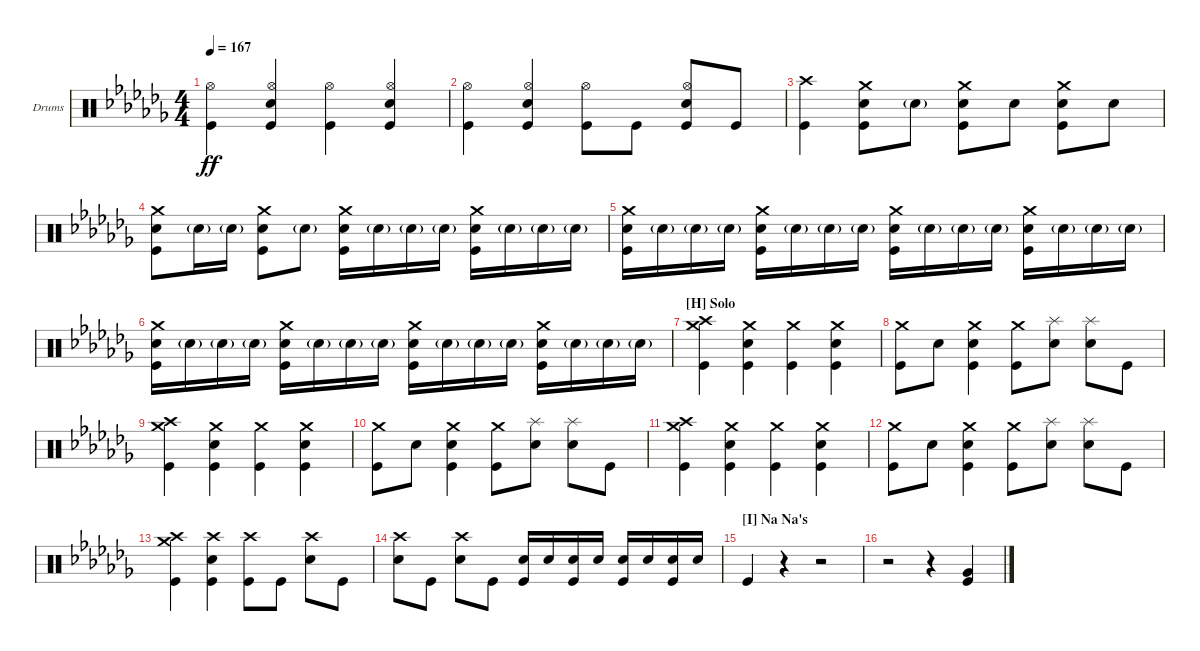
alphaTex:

\defaultSystemsLayout 4
\bracketExtendMode groupsimilarinstruments
\firstSystemTrackNameOrientation horizontal
\otherSystemsTrackNameOrientation horizontal
\track ("Drumkit" "Drums") {instrument percussion}
\staff {score}
\articulation defaults
\ts (4 4)
\tempo 167
\clef neutral
\ks abminor
("Kick (hit)" "Hi-Hat (open)").4{dy ff} ("Snare (hit) 2" "Hi-Hat (open)" "Kick (hit)").4 ("Kick (hit)" "Hi-Hat (open)").4 ("Snare (hit) 2" "Hi-Hat (open)" "Kick (hit)").4 |
("Kick (hit)" "Hi-Hat (open)").4 ("Snare (hit) 2" "Hi-Hat (open)" "Kick (hit)").4 ("Kick (hit)" "Hi-Hat (open)").8 "Kick (hit)".8 ("Snare (hit) 2" "Hi-Hat (open)" "Kick (hit)").8 "Kick (hit)".8 |
("Kick (hit)" "Crash high (hit)").4 ("Snare (hit) 2" "Kick (hit)" "Crash medium (hit)").8 "Snare (hit) 2"{g}.8 ("Snare (hit) 2" "Kick (hit)" "Crash medium (hit)").8 "Snare (hit) 2".8 ("Snare (hit) 2" "Kick (hit)" "Crash medium (hit)").8 "Snare (hit) 2".8 |
("Snare (hit) 2" "Kick (hit)" "Crash medium (hit)").8 "Snare (hit) 2"{g}.16 "Snare (hit) 2"{g}.16 ("Snare (hit) 2" "Kick (hit)" "Crash medium (hit)").8 "Snare (hit) 2"{g}.8 ("Snare (hit) 2" "Kick (hit)" "Crash medium (hit)").16 "Snare (hit) 2"{g}.16 "Snare (hit) 2"{g}.16 "Snare (hit) 2"{g}.16 ("Snare (hit) 2" "Kick (hit)" "Crash medium (hit)").16 "Snare (hit) 2"{g}.16 "Snare (hit) 2"{g}.16 "Snare (hit) 2"{g}.16 |
("Snare (hit) 2" "Kick (hit)" "Crash medium (hit)").16 "Snare (hit) 2"{g}.16 "Snare (hit) 2"{g}.16 "Snare (hit) 2"{g}.16 ("Snare (hit) 2" "Kick (hit)" "Crash medium (hit)").16 "Snare (hit) 2"{g}.16 "Snare (hit) 2"{g}.16 "Snare (hit) 2"{g}.16 ("Snare (hit) 2" "Kick (hit)" "Crash medium (hit)").16 "Snare (hit) 2"{g}.16 "Snare (hit) 2"{g}.16 "Snare (hit) 2"{g}.16 ("Snare (hit) 2" "Kick (hit)" "Crash medium (hit)").16 "Snare (hit) 2"{g}.16 "Snare (hit) 2"{g}.16 "Snare (hit) 2"{g}.16 |
("Snare (hit) 2" "Kick (hit)" "Crash medium (hit)").16 "Snare (hit) 2"{g}.16 "Snare (hit) 2"{g}.16 "Snare (hit) 2"{g}.16 ("Snare (hit) 2" "Kick (hit)" "Crash medium (hit)").16 "Snare (hit) 2"{g}.16 "Snare (hit) 2"{g}.16 "Snare (hit) 2"{g}.16 ("Snare (hit) 2" "Kick (hit)" "Crash medium (hit)").16 "Snare (hit) 2"{g}.16 "Snare (hit) 2"{g}.16 "Snare (hit) 2"{g}.16 ("Snare (hit) 2" "Kick (hit)" "Crash medium (hit)").16 "Snare (hit) 2"{g}.16 "Snare (hit) 2"{g}.16 "Snare (hit) 2"{g}.16 |
\section ("H" "Solo")
("Crash medium (hit)" "Crash high (hit)" "Kick (hit)").4 ("Snare (hit) 2" "Kick (hit)" "Crash medium (hit)").4 ("Kick (hit)" "Crash medium (hit)").4 ("Snare (hit) 2" "Kick (hit)" "Crash medium (hit)").4 |
("Kick (hit)" "Crash medium (hit)").8 "Snare (hit) 2".8 ("Snare (hit) 2" "Kick (hit)" "Crash medium (hit)").4 ("Kick (hit)" "Crash medium (hit)").8 ("Snare (hit) 2" "Splash (hit)").8 ("Snare (hit) 2" "Splash (hit)").8 "Kick (hit)".8 |
("Crash medium (hit)" "Crash high (hit)" "Kick (hit)").4 ("Snare (hit) 2" "Kick (hit)" "Crash medium (hit)").4 ("Kick (hit)" "Crash medium (hit)").4 ("Snare (hit) 2" "Kick (hit)" "Crash medium (hit)").4 |
("Kick (hit)" "Crash medium (hit)").8 "Snare (hit) 2".8 ("Snare (hit) 2" "Kick (hit)" "Crash medium (hit)").4 ("Kick (hit)" "Crash medium (hit)").8 ("Snare (hit) 2" "Splash (hit)").8 ("Snare (hit) 2" "Splash (hit)").8 "Kick (hit)".8 |
("Crash medium (hit)" "Crash high (hit)" "Kick (hit)").4 ("Snare (hit) 2" "Kick (hit)" "Crash medium (hit)").4 ("Kick (hit)" "Crash medium (hit)").4 ("Snare (hit) 2" "Kick (hit)" "Crash medium (hit)").4 |
("Kick (hit)" "Crash medium (hit)").8 "Snare (hit) 2".8 ("Snare (hit) 2" "Kick (hit)" "Crash medium (hit)").4 ("Kick (hit)" "Crash medium (hit)").8 ("Snare (hit) 2" "Splash (hit)").8 ("Snare (hit) 2" "Splash (hit)").8 "Kick (hit)".8 |
("Kick (hit)" "Crash high (hit)" "Crash medium (hit)").4 ("Kick (hit)" "Snare (hit) 2" "Crash high (hit)").4 ("Kick (hit)" "Crash high (hit)").8 "Kick (hit)".8 ("Snare (hit) 2" "Crash high (hit)").8 "Kick (hit)".8 |
("Snare (hit) 2" "Crash high (hit)").8 "Kick (hit)".8 ("Snare (hit) 2" "Crash high (hit)").8 "Kick (hit)".8 ("Snare (hit) 2" "Kick (hit)").16 "Snare (hit) 2".16 ("Snare (hit) 2" "Kick (hit)").16 "Snare (hit) 2".16 ("Snare (hit) 2" "Kick (hit)").16 "Snare (hit) 2".16 ("Snare (hit) 2" "Kick (hit)").16 "Snare (hit) 2".16 |
\section ("I" "Na Na's")
"Kick (hit)".4 r.4 r.2 |
r.2 r.4 ("Kick (hit)" "Very Low Tom (hit)").4
